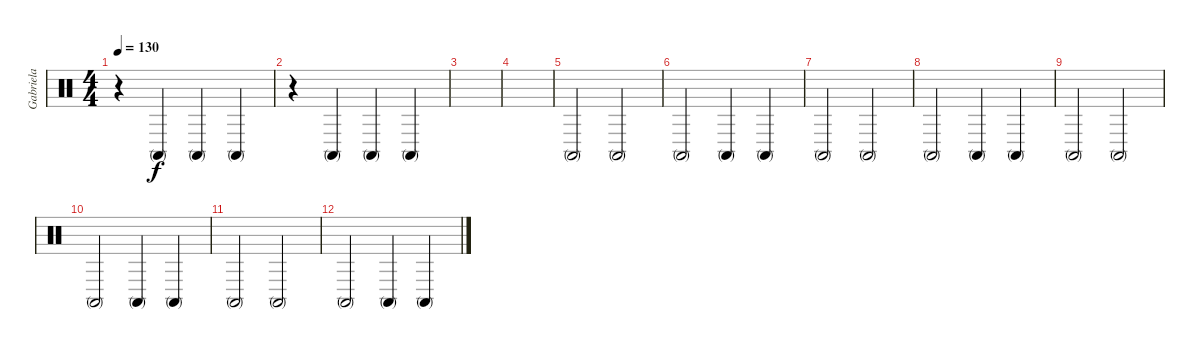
\track ("Gabriela " "Gabriela ") {instrument percussion}
\staff {score}
\articulation defaults
\ts (4 4)
\tempo 130
\clef neutral
\ks c
r.4{dy f} "Conga high (mute)".4 "Conga high (mute)".4 "Conga high (mute)".4 |
r.4 "Conga high (mute)".4 "Conga high (mute)".4 "Conga high (mute)".4 |
|
|
"Conga high (mute)".2 "Conga high (mute)".2 |
"Conga high (mute)".2 "Conga high (mute)".4 "Conga high (mute)".4 |
"Conga high (mute)".2 "Conga high (mute)".2 |
"Conga high (mute)".2 "Conga high (mute)".4 "Conga high (mute)".4 |
"Conga high (mute)".2 "Conga high (mute)".2 |
"Conga high (mute)".2 "Conga high (mute)".4 "Conga high (mute)".4 |
"Conga high (mute)".2 "Conga high (mute)".2 |
"Conga high (mute)".2 "Conga high (mute)".4 "Conga high (mute)".4
